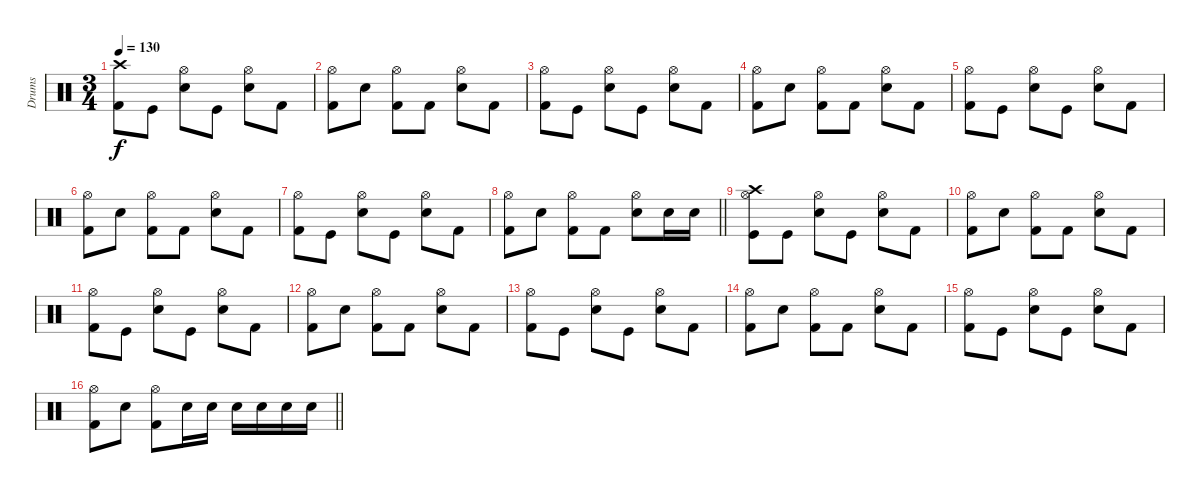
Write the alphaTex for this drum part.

\track ("Drums" "Drums") {instrument percussion}
\staff {score}
\articulation defaults
\ts (3 4)
\section ("" "")
\tempo 130
\clef neutral
\ks c
("Crash high (hit)" "Kick (hit) 2").8{dy f} "Kick (hit)".8 ("Hi-Hat (open)" "Electric Snare (hit)").8 "Kick (hit)".8 ("Hi-Hat (open)" "Electric Snare (hit)").8 "Kick (hit) 2".8 |
("Hi-Hat (open)" "Kick (hit) 2").8 "Electric Snare (hit)".8 ("Hi-Hat (open)" "Kick (hit) 2").8 "Kick (hit) 2".8 ("Hi-Hat (open)" "Electric Snare (hit)").8 "Kick (hit) 2".8 |
("Hi-Hat (open)" "Kick (hit) 2").8 "Kick (hit)".8 ("Hi-Hat (open)" "Electric Snare (hit)").8 "Kick (hit)".8 ("Hi-Hat (open)" "Electric Snare (hit)").8 "Kick (hit) 2".8 |
("Hi-Hat (open)" "Kick (hit) 2").8 "Electric Snare (hit)".8 ("Hi-Hat (open)" "Kick (hit) 2").8 "Kick (hit) 2".8 ("Hi-Hat (open)" "Electric Snare (hit)").8 "Kick (hit) 2".8 |
("Hi-Hat (open)" "Kick (hit) 2").8 "Kick (hit)".8 ("Hi-Hat (open)" "Electric Snare (hit)").8 "Kick (hit)".8 ("Hi-Hat (open)" "Electric Snare (hit)").8 "Kick (hit) 2".8 |
("Hi-Hat (open)" "Kick (hit) 2").8 "Electric Snare (hit)".8 ("Hi-Hat (open)" "Kick (hit) 2").8 "Kick (hit) 2".8 ("Hi-Hat (open)" "Electric Snare (hit)").8 "Kick (hit) 2".8 |
("Hi-Hat (open)" "Kick (hit) 2").8 "Kick (hit)".8 ("Hi-Hat (open)" "Electric Snare (hit)").8 "Kick (hit)".8 ("Hi-Hat (open)" "Electric Snare (hit)").8 "Kick (hit) 2".8 |
\barLineRight lightlight
("Hi-Hat (open)" "Kick (hit) 2").8 "Electric Snare (hit)".8 ("Hi-Hat (open)" "Kick (hit) 2").8 "Kick (hit) 2".8 ("Hi-Hat (open)" "Electric Snare (hit)").8 "Electric Snare (hit)".16 "Electric Snare (hit)".16 |
\section ("" "")
("Hi-Hat (open)" "Kick (hit)" "Crash high (hit)").8 "Kick (hit)".8 ("Hi-Hat (open)" "Electric Snare (hit)").8 "Kick (hit)".8 ("Hi-Hat (open)" "Electric Snare (hit)").8 "Kick (hit) 2".8 |
("Hi-Hat (open)" "Kick (hit) 2").8 "Electric Snare (hit)".8 ("Hi-Hat (open)" "Kick (hit) 2").8 "Kick (hit) 2".8 ("Hi-Hat (open)" "Electric Snare (hit)").8 "Kick (hit) 2".8 |
("Hi-Hat (open)" "Kick (hit) 2").8 "Kick (hit)".8 ("Hi-Hat (open)" "Electric Snare (hit)").8 "Kick (hit)".8 ("Hi-Hat (open)" "Electric Snare (hit)").8 "Kick (hit) 2".8 |
("Hi-Hat (open)" "Kick (hit) 2").8 "Electric Snare (hit)".8 ("Hi-Hat (open)" "Kick (hit) 2").8 "Kick (hit) 2".8 ("Hi-Hat (open)" "Electric Snare (hit)").8 "Kick (hit) 2".8 |
("Hi-Hat (open)" "Kick (hit) 2").8 "Kick (hit)".8 ("Hi-Hat (open)" "Electric Snare (hit)").8 "Kick (hit)".8 ("Hi-Hat (open)" "Electric Snare (hit)").8 "Kick (hit) 2".8 |
("Hi-Hat (open)" "Kick (hit) 2").8 "Electric Snare (hit)".8 ("Hi-Hat (open)" "Kick (hit) 2").8 "Kick (hit) 2".8 ("Hi-Hat (open)" "Electric Snare (hit)").8 "Kick (hit) 2".8 |
("Hi-Hat (open)" "Kick (hit) 2").8 "Kick (hit)".8 ("Hi-Hat (open)" "Electric Snare (hit)").8 "Kick (hit)".8 ("Hi-Hat (open)" "Electric Snare (hit)").8 "Kick (hit) 2".8 |
\barLineRight lightlight
("Hi-Hat (open)" "Kick (hit) 2").8 "Electric Snare (hit)".8 ("Hi-Hat (open)" "Kick (hit) 2").8 "Electric Snare (hit)".16 "Electric Snare (hit)".16 "Electric Snare (hit)".16 "Electric Snare (hit)".16 "Electric Snare (hit)".16 "Electric Snare (hit)".16
